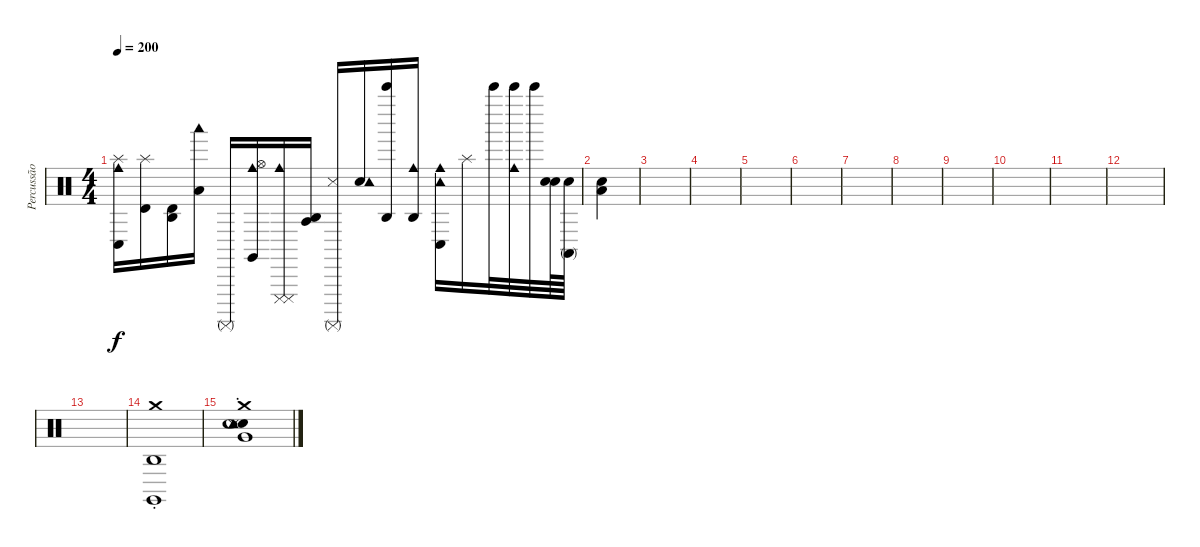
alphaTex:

\track ("Percussão" "Percussão") {instrument percussion}
\staff {score}
\articulation defaults
\ts (4 4)
\tempo 200
\clef neutral
\ks c
("Cowbell medium (hit)" "Conga low (hit)" "Splash (hit)").16{dy f} ("Splash (hit)" "Timbale high (hit)").16 ("Timbale high (hit)" "Agogo high (hit)").16 ("Low Tom (hit)" "Woodblock low (hit)").16 "Surdo (mute)".16 ("Cowbell medium (hit)" "Claves (hit)" "Hi-Hat (open)").16 ("Cuica (mute)" "Cuica (mute)" "Cowbell medium (hit)").16 ("Agogo tow (hit)" "Agogo high (hit)").16 ("Surdo (mute)" "Metronome (hit)").16 ("Snare (hit)" "Tambourine (hit)").16 ("Bell Tree (hit)" "Agogo high (hit)").16 ("Agogo high (hit)" "Cowbell medium (hit)").16 ("Tambourine (hit)" "Conga low (hit)" "Cowbell medium (hit)").16 "Splash (hit)".16 "Bell Tree (hit)".32 ("Bell Tree (hit)" "Cowbell medium (hit)").32 "Bell Tree (hit)".32 ("Snare (hit)" "Snare (hit)").64 ("Conga high (mute)" "Snare (hit)").64 |
("Snare (hit)" "Low Tom (hit)").4 |
|
|
|
|
|
|
|
|
|
|
|
("Agogo high (hit)" "Claves (hit)" "Crash medium (choke)").1 |
("Metronome (bell)" "Very Low Tom (hit)" "Crash medium (choke)" "Snare (side stick) 3" "Tambourine (hit)" "Snare (hit)").1
